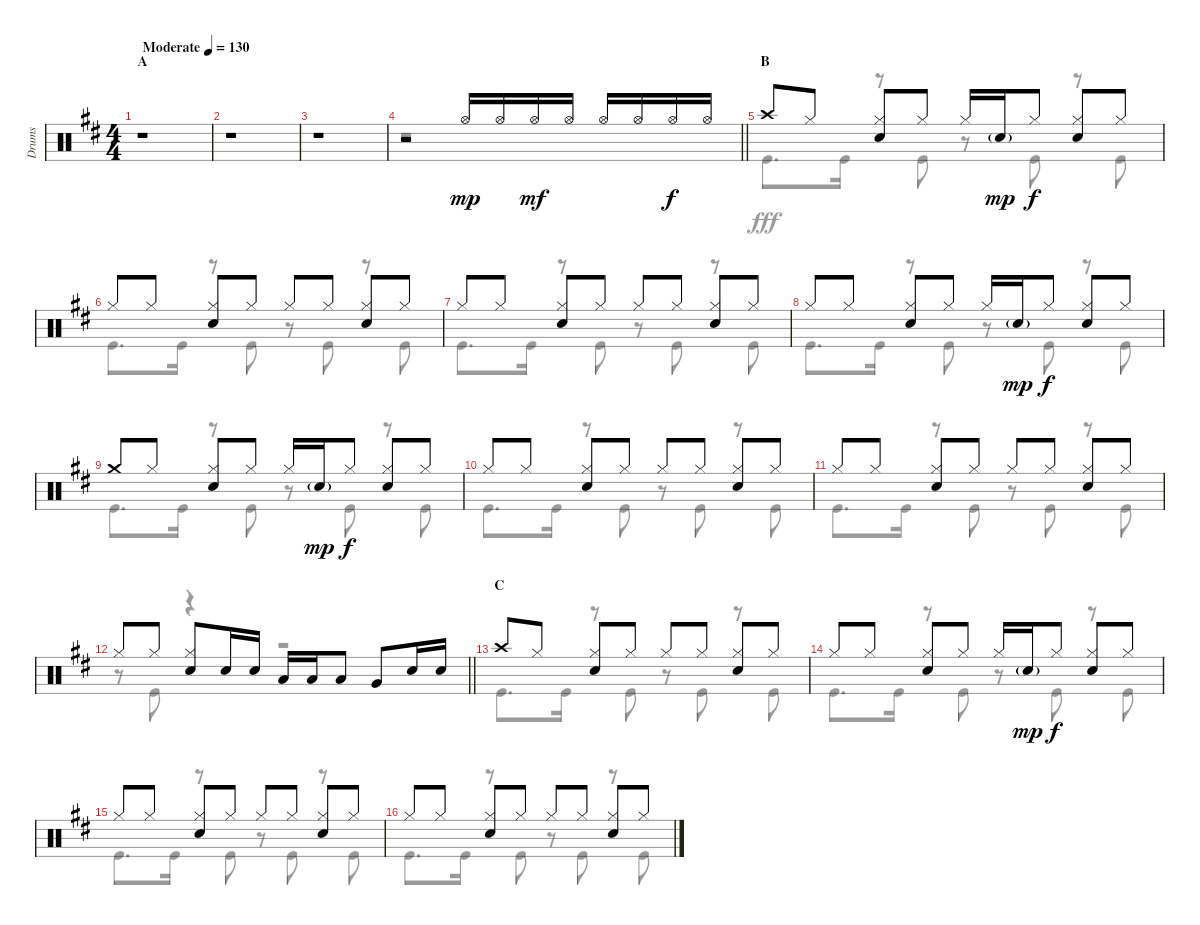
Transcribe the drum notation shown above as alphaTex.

\track ("Drums" "Drums") {instrument percussion}
\staff {score}
\articulation defaults
\voice
\ts (4 4)
\section ("" "A")
\tempo (130 "Moderate")
\clef neutral
\ks d
r.1{dy mp} |
r.1 |
r.1 |
\barLineRight lightlight
r.2 "Hi-Hat (open)".16 "Hi-Hat (open)".16 "Hi-Hat (open)".16{dy mf} "Hi-Hat (open)".16 "Hi-Hat (open)".16 "Hi-Hat (open)".16 "Hi-Hat (open)".16{dy f} "Hi-Hat (open)".16 |
\section ("" "B")
"Crash high (hit)".8 "Hi-Hat (closed)".8 ("Hi-Hat (closed)" "Snare (hit) 2").8 "Hi-Hat (closed)".8 "Hi-Hat (closed)".16 "Snare (hit) 2"{g}.16{dy mp} "Hi-Hat (closed)".8{dy f} ("Hi-Hat (closed)" "Snare (hit) 2").8 "Hi-Hat (closed)".8 |
"Hi-Hat (closed)".8 "Hi-Hat (closed)".8 ("Hi-Hat (closed)" "Snare (hit) 2").8 "Hi-Hat (closed)".8 "Hi-Hat (closed)".8 "Hi-Hat (closed)".8 ("Hi-Hat (closed)" "Snare (hit) 2").8 "Hi-Hat (closed)".8 |
"Hi-Hat (closed)".8 "Hi-Hat (closed)".8 ("Hi-Hat (closed)" "Snare (hit) 2").8 "Hi-Hat (closed)".8 "Hi-Hat (closed)".8 "Hi-Hat (closed)".8 ("Hi-Hat (closed)" "Snare (hit) 2").8 "Hi-Hat (closed)".8 |
"Hi-Hat (closed)".8 "Hi-Hat (closed)".8 ("Hi-Hat (closed)" "Snare (hit) 2").8 "Hi-Hat (closed)".8 "Hi-Hat (closed)".16 "Snare (hit) 2"{g}.16{dy mp} "Hi-Hat (closed)".8{dy f} ("Hi-Hat (closed)" "Snare (hit) 2").8 "Hi-Hat (closed)".8 |
"Crash medium (hit)".8 "Hi-Hat (closed)".8 ("Hi-Hat (closed)" "Snare (hit) 2").8 "Hi-Hat (closed)".8 "Hi-Hat (closed)".16 "Snare (hit) 2"{g}.16{dy mp} "Hi-Hat (closed)".8{dy f} ("Hi-Hat (closed)" "Snare (hit) 2").8 "Hi-Hat (closed)".8 |
"Hi-Hat (closed)".8 "Hi-Hat (closed)".8 ("Hi-Hat (closed)" "Snare (hit) 2").8 "Hi-Hat (closed)".8 "Hi-Hat (closed)".8 "Hi-Hat (closed)".8 ("Hi-Hat (closed)" "Snare (hit) 2").8 "Hi-Hat (closed)".8 |
"Hi-Hat (closed)".8 "Hi-Hat (closed)".8 ("Hi-Hat (closed)" "Snare (hit) 2").8 "Hi-Hat (closed)".8 "Hi-Hat (closed)".8 "Hi-Hat (closed)".8 ("Hi-Hat (closed)" "Snare (hit) 2").8 "Hi-Hat (closed)".8 |
\barLineRight lightlight "Hi-Hat (closed)".8 "Hi-Hat (closed)".8
("Hi-Hat (closed)" "Snare (hit) 2").8 "Snare (hit) 2".16 "Snare (hit) 2".16 "Low Tom (hit)".16 "Low Tom (hit)".16 "Low Tom (hit)".8 "Very Low Tom (hit)".8 "Snare (hit) 2".16 "Snare (hit) 2".16 |
\section ("" "C")
"Crash high (hit)".8 "Hi-Hat (closed)".8 ("Hi-Hat (closed)" "Snare (hit) 2").8 "Hi-Hat (closed)".8 "Hi-Hat (closed)".8 "Hi-Hat (closed)".8 ("Hi-Hat (closed)" "Snare (hit) 2").8 "Hi-Hat (closed)".8 |
"Hi-Hat (closed)".8 "Hi-Hat (closed)".8 ("Hi-Hat (closed)" "Snare (hit) 2").8 "Hi-Hat (closed)".8 "Hi-Hat (closed)".16 "Snare (hit) 2"{g}.16{dy mp} "Hi-Hat (closed)".8{dy f} ("Hi-Hat (closed)" "Snare (hit) 2").8 "Hi-Hat (closed)".8 |
"Hi-Hat (closed)".8 "Hi-Hat (closed)".8 ("Hi-Hat (closed)" "Snare (hit) 2").8 "Hi-Hat (closed)".8 "Hi-Hat (closed)".8 "Hi-Hat (closed)".8 ("Hi-Hat (closed)" "Snare (hit) 2").8 "Hi-Hat (closed)".8 |
"Hi-Hat (closed)".8 "Hi-Hat (closed)".8 ("Hi-Hat (closed)" "Snare (hit) 2").8 "Hi-Hat (closed)".8 "Hi-Hat (closed)".8 "Hi-Hat (closed)".8 ("Hi-Hat (closed)" "Snare (hit) 2").8 "Hi-Hat (closed)".8
\voice
\clef neutral
\ottava regular
\simile none
\ks d
r.1{dy fff} |
r.1 |
r.1 |
\barLineRight lightlight
r.1 |
"Kick (hit)".8{d} "Kick (hit)".16 r.8 "Kick (hit)".8 r.8 "Kick (hit)".8 r.8 "Kick (hit)".8 |
"Kick (hit)".8{d} "Kick (hit)".16 r.8 "Kick (hit)".8 r.8 "Kick (hit)".8 r.8 "Kick (hit)".8 |
"Kick (hit)".8{d} "Kick (hit)".16 r.8 "Kick (hit)".8 r.8 "Kick (hit)".8 r.8 "Kick (hit)".8 |
"Kick (hit)".8{d} "Kick (hit)".16 r.8 "Kick (hit)".8 r.8 "Kick (hit)".8 r.8 "Kick (hit)".8 |
"Kick (hit)".8{d} "Kick (hit)".16 r.8 "Kick (hit)".8 r.8 "Kick (hit)".8 r.8 "Kick (hit)".8 |
"Kick (hit)".8{d} "Kick (hit)".16 r.8 "Kick (hit)".8 r.8 "Kick (hit)".8 r.8 "Kick (hit)".8 |
"Kick (hit)".8{d} "Kick (hit)".16 r.8 "Kick (hit)".8 r.8 "Kick (hit)".8 r.8 "Kick (hit)".8 |
\barLineRight lightlight
r.8 "Kick (hit)".8 r.4 r.2 |
"Kick (hit)".8{d} "Kick (hit)".16 r.8 "Kick (hit)".8 r.8 "Kick (hit)".8 r.8 "Kick (hit)".8 |
"Kick (hit)".8{d} "Kick (hit)".16 r.8 "Kick (hit)".8 r.8 "Kick (hit)".8 r.8 "Kick (hit)".8 |
"Kick (hit)".8{d} "Kick (hit)".16 r.8 "Kick (hit)".8 r.8 "Kick (hit)".8 r.8 "Kick (hit)".8 |
"Kick (hit)".8{d} "Kick (hit)".16 r.8 "Kick (hit)".8 r.8 "Kick (hit)".8 r.8 "Kick (hit)".8
